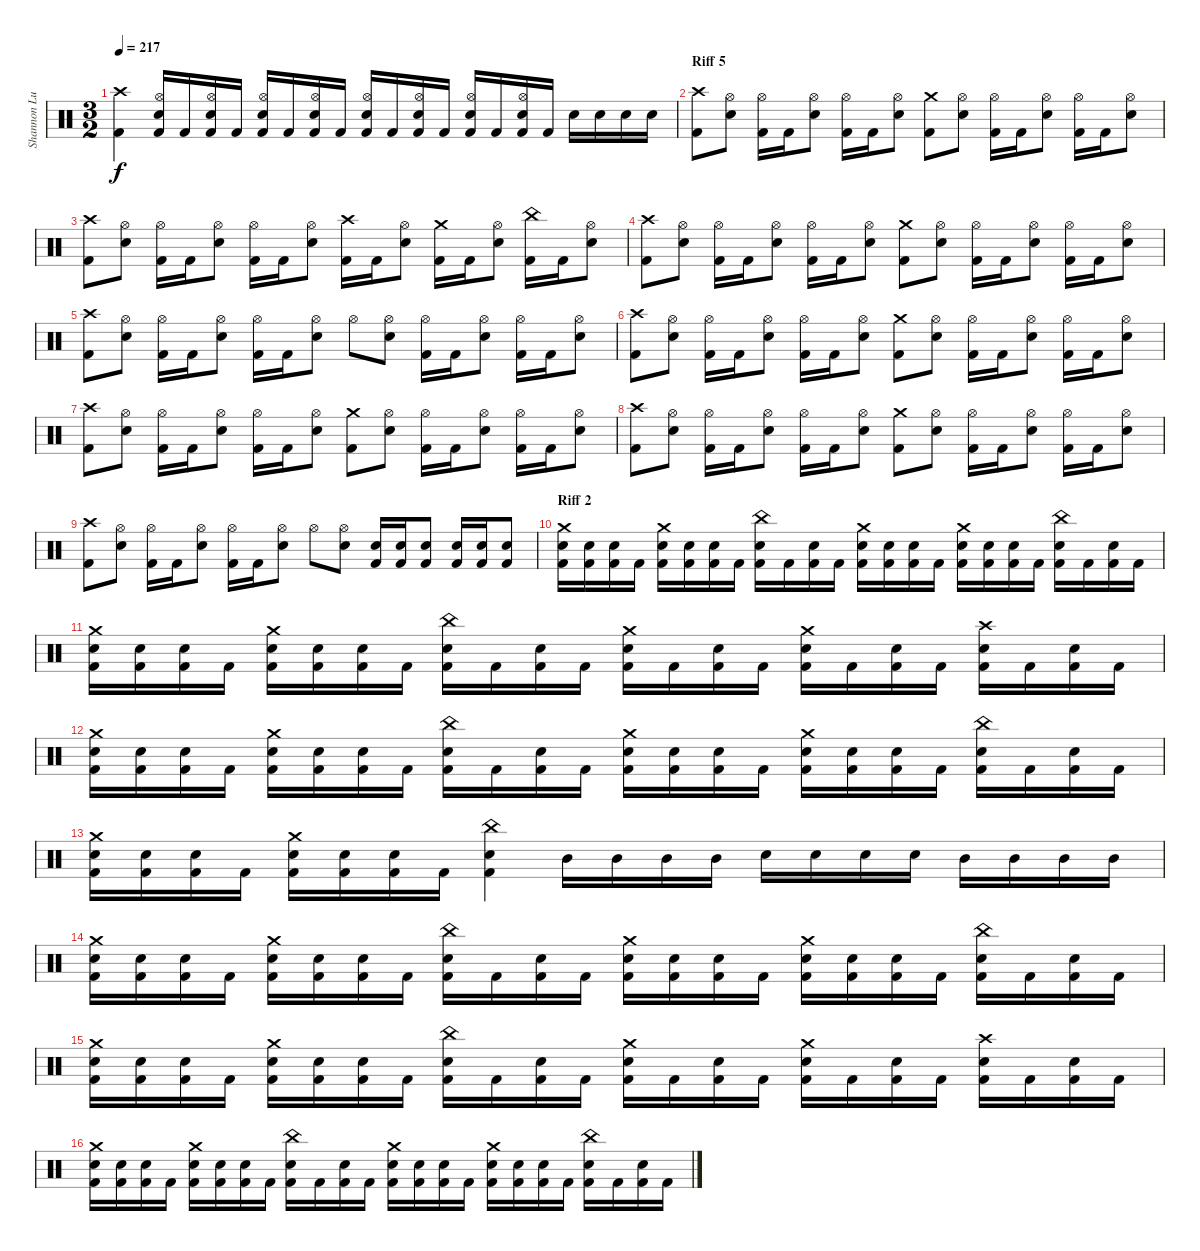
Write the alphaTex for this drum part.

\track ("Shannon Lucas (Drums)" "Shannon Lu") {instrument percussion}
\staff {score}
\articulation defaults
\ts (3 2)
\tempo 217
\clef neutral
\ks c
("Crash high (hit)" "Kick (hit) 2").4{dy f} ("Hi-Hat (open)" "Snare (hit) 2" "Kick (hit) 2").16 "Kick (hit) 2".16 ("Hi-Hat (open)" "Snare (hit) 2" "Kick (hit) 2").16 "Kick (hit) 2".16 ("Hi-Hat (open)" "Snare (hit) 2" "Kick (hit) 2").16 "Kick (hit) 2".16 ("Hi-Hat (open)" "Snare (hit) 2" "Kick (hit) 2").16 "Kick (hit) 2".16 ("Hi-Hat (open)" "Snare (hit) 2" "Kick (hit) 2").16 "Kick (hit) 2".16 ("Hi-Hat (open)" "Snare (hit) 2" "Kick (hit) 2").16 "Kick (hit) 2".16 ("Hi-Hat (open)" "Snare (hit) 2" "Kick (hit) 2").16 "Kick (hit) 2".16 ("Hi-Hat (open)" "Snare (hit) 2" "Kick (hit) 2").16 "Kick (hit) 2".16 "Snare (hit) 2".16 "Snare (hit) 2".16 "Snare (hit) 2".16 "Snare (hit) 2".16 |
\section ("" "Riff 5")
("Crash high (hit)" "Kick (hit) 2").8 ("Hi-Hat (open)" "Snare (hit) 2").8 ("Hi-Hat (open)" "Kick (hit) 2").16 "Kick (hit) 2".16 ("Hi-Hat (open)" "Snare (hit) 2").8 ("Hi-Hat (open)" "Kick (hit) 2").16 "Kick (hit) 2".16 ("Hi-Hat (open)" "Snare (hit) 2").8 ("Crash medium (hit)" "Kick (hit) 2").8 ("Hi-Hat (open)" "Snare (hit) 2").8 ("Hi-Hat (open)" "Kick (hit) 2").16 "Kick (hit) 2".16 ("Hi-Hat (open)" "Snare (hit) 2").8 ("Hi-Hat (open)" "Kick (hit) 2").16 "Kick (hit) 2".16 ("Hi-Hat (open)" "Snare (hit) 2").8 |
("Crash high (hit)" "Kick (hit) 2").8 ("Hi-Hat (open)" "Snare (hit) 2").8 ("Hi-Hat (open)" "Kick (hit) 2").16 "Kick (hit) 2".16 ("Hi-Hat (open)" "Snare (hit) 2").8 ("Hi-Hat (open)" "Kick (hit) 2").16 "Kick (hit) 2".16 ("Hi-Hat (open)" "Snare (hit) 2").8 ("Crash high (hit)" "Kick (hit) 2").16 "Kick (hit) 2".16 ("Hi-Hat (open)" "Snare (hit) 2").8 ("Crash medium (hit)" "Kick (hit) 2").16 "Kick (hit) 2".16 ("Hi-Hat (open)" "Snare (hit) 2").8 ("China (hit)" "Kick (hit) 2").16 "Kick (hit) 2".16 ("Hi-Hat (open)" "Snare (hit) 2").8 |
("Crash high (hit)" "Kick (hit) 2").8 ("Hi-Hat (open)" "Snare (hit) 2").8 ("Hi-Hat (open)" "Kick (hit) 2").16 "Kick (hit) 2".16 ("Hi-Hat (open)" "Snare (hit) 2").8 ("Hi-Hat (open)" "Kick (hit) 2").16 "Kick (hit) 2".16 ("Hi-Hat (open)" "Snare (hit) 2").8 ("Crash medium (hit)" "Kick (hit) 2").8 ("Hi-Hat (open)" "Snare (hit) 2").8 ("Hi-Hat (open)" "Kick (hit) 2").16 "Kick (hit) 2".16 ("Hi-Hat (open)" "Snare (hit) 2").8 ("Hi-Hat (open)" "Kick (hit) 2").16 "Kick (hit) 2".16 ("Hi-Hat (open)" "Snare (hit) 2").8 |
("Crash high (hit)" "Kick (hit) 2").8 ("Hi-Hat (open)" "Snare (hit) 2").8 ("Hi-Hat (open)" "Kick (hit) 2").16 "Kick (hit) 2".16 ("Hi-Hat (open)" "Snare (hit) 2").8 ("Hi-Hat (open)" "Kick (hit) 2").16 "Kick (hit) 2".16 ("Hi-Hat (open)" "Snare (hit) 2").8 "Hi-Hat (open)".8 ("Hi-Hat (open)" "Snare (hit) 2").8 ("Hi-Hat (open)" "Kick (hit) 2").16 "Kick (hit) 2".16 ("Hi-Hat (open)" "Snare (hit) 2").8 ("Hi-Hat (open)" "Kick (hit) 2").16 "Kick (hit) 2".16 ("Hi-Hat (open)" "Snare (hit) 2").8 |
("Crash high (hit)" "Kick (hit) 2").8 ("Hi-Hat (open)" "Snare (hit) 2").8 ("Hi-Hat (open)" "Kick (hit) 2").16 "Kick (hit) 2".16 ("Hi-Hat (open)" "Snare (hit) 2").8 ("Hi-Hat (open)" "Kick (hit) 2").16 "Kick (hit) 2".16 ("Hi-Hat (open)" "Snare (hit) 2").8 ("Crash medium (hit)" "Kick (hit) 2").8 ("Hi-Hat (open)" "Snare (hit) 2").8 ("Hi-Hat (open)" "Kick (hit) 2").16 "Kick (hit) 2".16 ("Hi-Hat (open)" "Snare (hit) 2").8 ("Hi-Hat (open)" "Kick (hit) 2").16 "Kick (hit) 2".16 ("Hi-Hat (open)" "Snare (hit) 2").8 |
("Crash high (hit)" "Kick (hit) 2").8 ("Hi-Hat (open)" "Snare (hit) 2").8 ("Hi-Hat (open)" "Kick (hit) 2").16 "Kick (hit) 2".16 ("Hi-Hat (open)" "Snare (hit) 2").8 ("Hi-Hat (open)" "Kick (hit) 2").16 "Kick (hit) 2".16 ("Hi-Hat (open)" "Snare (hit) 2").8 ("Crash medium (hit)" "Kick (hit) 2").8 ("Hi-Hat (open)" "Snare (hit) 2").8 ("Hi-Hat (open)" "Kick (hit) 2").16 "Kick (hit) 2".16 ("Hi-Hat (open)" "Snare (hit) 2").8 ("Hi-Hat (open)" "Kick (hit) 2").16 "Kick (hit) 2".16 ("Hi-Hat (open)" "Snare (hit) 2").8 |
("Crash high (hit)" "Kick (hit) 2").8 ("Hi-Hat (open)" "Snare (hit) 2").8 ("Hi-Hat (open)" "Kick (hit) 2").16 "Kick (hit) 2".16 ("Hi-Hat (open)" "Snare (hit) 2").8 ("Hi-Hat (open)" "Kick (hit) 2").16 "Kick (hit) 2".16 ("Hi-Hat (open)" "Snare (hit) 2").8 ("Crash medium (hit)" "Kick (hit) 2").8 ("Hi-Hat (open)" "Snare (hit) 2").8 ("Hi-Hat (open)" "Kick (hit) 2").16 "Kick (hit) 2".16 ("Hi-Hat (open)" "Snare (hit) 2").8 ("Hi-Hat (open)" "Kick (hit) 2").16 "Kick (hit) 2".16 ("Hi-Hat (open)" "Snare (hit) 2").8 |
("Crash high (hit)" "Kick (hit) 2").8 ("Hi-Hat (open)" "Snare (hit) 2").8 ("Hi-Hat (open)" "Kick (hit) 2").16 "Kick (hit) 2".16 ("Hi-Hat (open)" "Snare (hit) 2").8 ("Hi-Hat (open)" "Kick (hit) 2").16 "Kick (hit) 2".16 ("Hi-Hat (open)" "Snare (hit) 2").8 "Hi-Hat (open)".8 ("Hi-Hat (open)" "Snare (hit) 2").8 ("Kick (hit) 2" "Snare (hit) 2").16 ("Kick (hit) 2" "Snare (hit) 2").16 ("Kick (hit) 2" "Snare (hit) 2").8 ("Kick (hit) 2" "Snare (hit) 2").16 ("Kick (hit) 2" "Snare (hit) 2").16 ("Kick (hit) 2" "Snare (hit) 2").8 |
\section ("" "Riff 2")
("Crash medium (hit)" "Snare (hit) 2" "Kick (hit) 2").16 ("Snare (hit) 2" "Kick (hit) 2").16 ("Snare (hit) 2" "Kick (hit) 2").16 "Kick (hit) 2".16 ("Crash medium (hit)" "Snare (hit) 2" "Kick (hit) 2").16 ("Snare (hit) 2" "Kick (hit) 2").16 ("Snare (hit) 2" "Kick (hit) 2").16 "Kick (hit) 2".16 ("China (hit)" "Snare (hit) 2" "Kick (hit) 2").16 "Kick (hit) 2".16 ("Snare (hit) 2" "Kick (hit) 2").16 "Kick (hit) 2".16 ("Crash medium (hit)" "Snare (hit) 2" "Kick (hit) 2").16 ("Snare (hit) 2" "Kick (hit) 2").16 ("Snare (hit) 2" "Kick (hit) 2").16 "Kick (hit) 2".16 ("Crash medium (hit)" "Snare (hit) 2" "Kick (hit) 2").16 ("Snare (hit) 2" "Kick (hit) 2").16 ("Snare (hit) 2" "Kick (hit) 2").16 "Kick (hit) 2".16 ("China (hit)" "Snare (hit) 2" "Kick (hit) 2").16 "Kick (hit) 2".16 ("Snare (hit) 2" "Kick (hit) 2").16 "Kick (hit) 2".16 |
("Crash medium (hit)" "Snare (hit) 2" "Kick (hit) 2").16 ("Snare (hit) 2" "Kick (hit) 2").16 ("Snare (hit) 2" "Kick (hit) 2").16 "Kick (hit) 2".16 ("Crash medium (hit)" "Snare (hit) 2" "Kick (hit) 2").16 ("Snare (hit) 2" "Kick (hit) 2").16 ("Snare (hit) 2" "Kick (hit) 2").16 "Kick (hit) 2".16 ("China (hit)" "Snare (hit) 2" "Kick (hit) 2").16 "Kick (hit) 2".16 ("Snare (hit) 2" "Kick (hit) 2").16 "Kick (hit) 2".16 ("Crash medium (hit)" "Snare (hit) 2" "Kick (hit) 2").16 "Kick (hit) 2".16 ("Snare (hit) 2" "Kick (hit) 2").16 "Kick (hit) 2".16 ("Crash medium (hit)" "Snare (hit) 2" "Kick (hit) 2").16 "Kick (hit) 2".16 ("Snare (hit) 2" "Kick (hit) 2").16 "Kick (hit) 2".16 ("Crash high (hit)" "Snare (hit) 2" "Kick (hit) 2").16 "Kick (hit) 2".16 ("Snare (hit) 2" "Kick (hit) 2").16 "Kick (hit) 2".16 |
("Crash medium (hit)" "Snare (hit) 2" "Kick (hit) 2").16 ("Snare (hit) 2" "Kick (hit) 2").16 ("Snare (hit) 2" "Kick (hit) 2").16 "Kick (hit) 2".16 ("Crash medium (hit)" "Snare (hit) 2" "Kick (hit) 2").16 ("Snare (hit) 2" "Kick (hit) 2").16 ("Snare (hit) 2" "Kick (hit) 2").16 "Kick (hit) 2".16 ("China (hit)" "Snare (hit) 2" "Kick (hit) 2").16 "Kick (hit) 2".16 ("Snare (hit) 2" "Kick (hit) 2").16 "Kick (hit) 2".16 ("Crash medium (hit)" "Snare (hit) 2" "Kick (hit) 2").16 ("Snare (hit) 2" "Kick (hit) 2").16 ("Snare (hit) 2" "Kick (hit) 2").16 "Kick (hit) 2".16 ("Crash medium (hit)" "Snare (hit) 2" "Kick (hit) 2").16 ("Snare (hit) 2" "Kick (hit) 2").16 ("Snare (hit) 2" "Kick (hit) 2").16 "Kick (hit) 2".16 ("China (hit)" "Snare (hit) 2" "Kick (hit) 2").16 "Kick (hit) 2".16 ("Snare (hit) 2" "Kick (hit) 2").16 "Kick (hit) 2".16 |
("Crash medium (hit)" "Snare (hit) 2" "Kick (hit) 2").16 ("Snare (hit) 2" "Kick (hit) 2").16 ("Snare (hit) 2" "Kick (hit) 2").16 "Kick (hit) 2".16 ("Crash medium (hit)" "Snare (hit) 2" "Kick (hit) 2").16 ("Snare (hit) 2" "Kick (hit) 2").16 ("Snare (hit) 2" "Kick (hit) 2").16 "Kick (hit) 2".16 ("China (hit)" "Snare (hit) 2" "Kick (hit) 2").4 "Mid Tom (hit)".16 "Mid Tom (hit)".16 "Mid Tom (hit)".16 "Mid Tom (hit)".16 "Snare (hit) 2".16 "Snare (hit) 2".16 "Snare (hit) 2".16 "Snare (hit) 2".16 "Mid Tom (hit)".16 "Mid Tom (hit)".16 "Mid Tom (hit)".16 "Mid Tom (hit)".16 |
("Crash medium (hit)" "Snare (hit) 2" "Kick (hit) 2").16 ("Snare (hit) 2" "Kick (hit) 2").16 ("Snare (hit) 2" "Kick (hit) 2").16 "Kick (hit) 2".16 ("Crash medium (hit)" "Snare (hit) 2" "Kick (hit) 2").16 ("Snare (hit) 2" "Kick (hit) 2").16 ("Snare (hit) 2" "Kick (hit) 2").16 "Kick (hit) 2".16 ("China (hit)" "Snare (hit) 2" "Kick (hit) 2").16 "Kick (hit) 2".16 ("Snare (hit) 2" "Kick (hit) 2").16 "Kick (hit) 2".16 ("Crash medium (hit)" "Snare (hit) 2" "Kick (hit) 2").16 ("Snare (hit) 2" "Kick (hit) 2").16 ("Snare (hit) 2" "Kick (hit) 2").16 "Kick (hit) 2".16 ("Crash medium (hit)" "Snare (hit) 2" "Kick (hit) 2").16 ("Snare (hit) 2" "Kick (hit) 2").16 ("Snare (hit) 2" "Kick (hit) 2").16 "Kick (hit) 2".16 ("China (hit)" "Snare (hit) 2" "Kick (hit) 2").16 "Kick (hit) 2".16 ("Snare (hit) 2" "Kick (hit) 2").16 "Kick (hit) 2".16 |
("Crash medium (hit)" "Snare (hit) 2" "Kick (hit) 2").16 ("Snare (hit) 2" "Kick (hit) 2").16 ("Snare (hit) 2" "Kick (hit) 2").16 "Kick (hit) 2".16 ("Crash medium (hit)" "Snare (hit) 2" "Kick (hit) 2").16 ("Snare (hit) 2" "Kick (hit) 2").16 ("Snare (hit) 2" "Kick (hit) 2").16 "Kick (hit) 2".16 ("China (hit)" "Snare (hit) 2" "Kick (hit) 2").16 "Kick (hit) 2".16 ("Snare (hit) 2" "Kick (hit) 2").16 "Kick (hit) 2".16 ("Crash medium (hit)" "Snare (hit) 2" "Kick (hit) 2").16 "Kick (hit) 2".16 ("Snare (hit) 2" "Kick (hit) 2").16 "Kick (hit) 2".16 ("Crash medium (hit)" "Snare (hit) 2" "Kick (hit) 2").16 "Kick (hit) 2".16 ("Snare (hit) 2" "Kick (hit) 2").16 "Kick (hit) 2".16 ("Crash high (hit)" "Snare (hit) 2" "Kick (hit) 2").16 "Kick (hit) 2".16 ("Snare (hit) 2" "Kick (hit) 2").16 "Kick (hit) 2".16 |
("Crash medium (hit)" "Snare (hit) 2" "Kick (hit) 2").16 ("Snare (hit) 2" "Kick (hit) 2").16 ("Snare (hit) 2" "Kick (hit) 2").16 "Kick (hit) 2".16 ("Crash medium (hit)" "Snare (hit) 2" "Kick (hit) 2").16 ("Snare (hit) 2" "Kick (hit) 2").16 ("Snare (hit) 2" "Kick (hit) 2").16 "Kick (hit) 2".16 ("China (hit)" "Snare (hit) 2" "Kick (hit) 2").16 "Kick (hit) 2".16 ("Snare (hit) 2" "Kick (hit) 2").16 "Kick (hit) 2".16 ("Crash medium (hit)" "Snare (hit) 2" "Kick (hit) 2").16 ("Snare (hit) 2" "Kick (hit) 2").16 ("Snare (hit) 2" "Kick (hit) 2").16 "Kick (hit) 2".16 ("Crash medium (hit)" "Snare (hit) 2" "Kick (hit) 2").16 ("Snare (hit) 2" "Kick (hit) 2").16 ("Snare (hit) 2" "Kick (hit) 2").16 "Kick (hit) 2".16 ("China (hit)" "Snare (hit) 2" "Kick (hit) 2").16 "Kick (hit) 2".16 ("Snare (hit) 2" "Kick (hit) 2").16 "Kick (hit) 2".16
